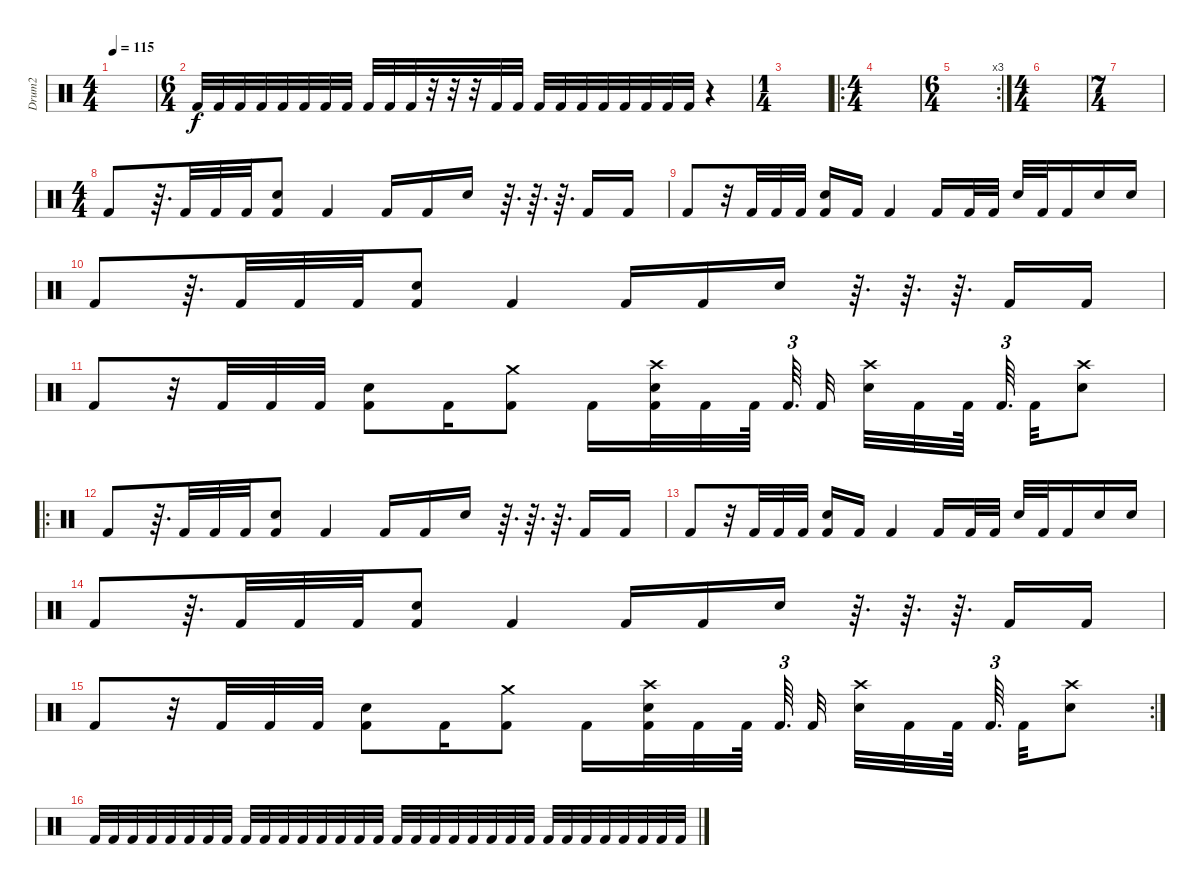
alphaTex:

\track ("Drum2" "Drum2") {instrument percussion}
\staff {score}
\articulation defaults
\ts (4 4)
\tempo 115
\clef neutral
\ks c
|
\ts (6 4)
"Kick (hit) 2".32 "Kick (hit) 2".32 "Kick (hit) 2".32 "Kick (hit) 2".32 "Kick (hit) 2".32 "Kick (hit) 2".32 "Kick (hit) 2".32 "Kick (hit) 2".32 "Kick (hit) 2".32 "Kick (hit) 2".32 "Kick (hit) 2".32 r.32 r.32 r.32 "Kick (hit) 2".32 "Kick (hit) 2".32 "Kick (hit) 2".32 "Kick (hit) 2".32 "Kick (hit) 2".32 "Kick (hit) 2".32 "Kick (hit) 2".32 "Kick (hit) 2".32 "Kick (hit) 2".32 "Kick (hit) 2".32 r.4 |
\ts (1 4)
|
\ro
\ts (4 4)
|
\rc 3
\ts (6 4)
|
\ts (4 4)
|
\ts (7 4)
|
\ts (4 4)
"Kick (hit) 2".8 r.64{d} "Kick (hit) 2".32 "Kick (hit) 2".32 "Kick (hit) 2".32 ("Kick (hit) 2" "Snare (hit) 2").8 "Kick (hit) 2".4 "Kick (hit) 2".16 "Kick (hit) 2".16 "Snare (hit) 2".16 r.64{d} r.64{d} r.64{d} "Kick (hit) 2".16 "Kick (hit) 2".16 |
"Kick (hit) 2".8 r.32 "Kick (hit) 2".32 "Kick (hit) 2".32 "Kick (hit) 2".32 ("Kick (hit) 2" "Snare (hit) 2").16 "Kick (hit) 2".16 "Kick (hit) 2".4 "Kick (hit) 2".16 "Kick (hit) 2".32 "Kick (hit) 2".32 "Snare (hit) 2".32 "Kick (hit) 2".32 "Kick (hit) 2".16 "Snare (hit) 2".16 "Snare (hit) 2".16 |
"Kick (hit) 2".8 r.64{d} "Kick (hit) 2".32 "Kick (hit) 2".32 "Kick (hit) 2".32 ("Kick (hit) 2" "Snare (hit) 2").8 "Kick (hit) 2".4 "Kick (hit) 2".16 "Kick (hit) 2".16 "Snare (hit) 2".16 r.64{d} r.64{d} r.64{d} "Kick (hit) 2".16 "Kick (hit) 2".16 |
"Kick (hit) 2".8 r.32 "Kick (hit) 2".32 "Kick (hit) 2".32 "Kick (hit) 2".32 ("Kick (hit) 2" "Snare (hit) 2").8 "Kick (hit) 2".16 ("Kick (hit) 2" "Crash medium (hit)").8 "Kick (hit) 2".16 ("Kick (hit) 2" "Crash high (hit)" "Snare (hit) 2").32 "Kick (hit) 2".32 "Kick (hit) 2".64{beam splitsecondary} "Kick (hit) 2".64{d tu (3 2)} "Kick (hit) 2".32 ("Crash high (hit)" "Snare (hit) 2").32 "Kick (hit) 2".32 "Kick (hit) 2".64{beam splitsecondary} "Kick (hit) 2".64{d tu (3 2) beam splitsecondary} "Kick (hit) 2".32 ("Crash high (hit)" "Snare (hit) 2").8 |
\ro "Kick (hit) 2".8
r.64{d} "Kick (hit) 2".32 "Kick (hit) 2".32 "Kick (hit) 2".32 ("Kick (hit) 2" "Snare (hit) 2").8 "Kick (hit) 2".4 "Kick (hit) 2".16 "Kick (hit) 2".16 "Snare (hit) 2".16 r.64{d} r.64{d} r.64{d} "Kick (hit) 2".16 "Kick (hit) 2".16 |
"Kick (hit) 2".8 r.32 "Kick (hit) 2".32 "Kick (hit) 2".32 "Kick (hit) 2".32 ("Kick (hit) 2" "Snare (hit) 2").16 "Kick (hit) 2".16 "Kick (hit) 2".4 "Kick (hit) 2".16 "Kick (hit) 2".32 "Kick (hit) 2".32 "Snare (hit) 2".32 "Kick (hit) 2".32 "Kick (hit) 2".16 "Snare (hit) 2".16 "Snare (hit) 2".16 |
"Kick (hit) 2".8 r.64{d} "Kick (hit) 2".32 "Kick (hit) 2".32 "Kick (hit) 2".32 ("Kick (hit) 2" "Snare (hit) 2").8 "Kick (hit) 2".4 "Kick (hit) 2".16 "Kick (hit) 2".16 "Snare (hit) 2".16 r.64{d} r.64{d} r.64{d} "Kick (hit) 2".16 "Kick (hit) 2".16 |
\rc 2 "Kick (hit) 2".8
r.32 "Kick (hit) 2".32 "Kick (hit) 2".32 "Kick (hit) 2".32 ("Kick (hit) 2" "Snare (hit) 2").8 "Kick (hit) 2".16 ("Kick (hit) 2" "Crash medium (hit)").8 "Kick (hit) 2".16 ("Kick (hit) 2" "Crash high (hit)" "Snare (hit) 2").32 "Kick (hit) 2".32 "Kick (hit) 2".64{beam splitsecondary} "Kick (hit) 2".64{d tu (3 2)} "Kick (hit) 2".32 ("Crash high (hit)" "Snare (hit) 2").32 "Kick (hit) 2".32 "Kick (hit) 2".64{beam splitsecondary} "Kick (hit) 2".64{d tu (3 2) beam splitsecondary} "Kick (hit) 2".32 ("Crash high (hit)" "Snare (hit) 2").8 |
"Kick (hit) 2".32 "Kick (hit) 2".32 "Kick (hit) 2".32 "Kick (hit) 2".32 "Kick (hit) 2".32 "Kick (hit) 2".32 "Kick (hit) 2".32 "Kick (hit) 2".32 "Kick (hit) 2".32 "Kick (hit) 2".32 "Kick (hit) 2".32 "Kick (hit) 2".32 "Kick (hit) 2".32 "Kick (hit) 2".32 "Kick (hit) 2".32 "Kick (hit) 2".32 "Kick (hit) 2".32 "Kick (hit) 2".32 "Kick (hit) 2".32 "Kick (hit) 2".32 "Kick (hit) 2".32 "Kick (hit) 2".32 "Kick (hit) 2".32 "Kick (hit) 2".32 "Kick (hit) 2".32 "Kick (hit) 2".32 "Kick (hit) 2".32 "Kick (hit) 2".32 "Kick (hit) 2".32 "Kick (hit) 2".32 "Kick (hit) 2".32 "Kick (hit) 2".32
